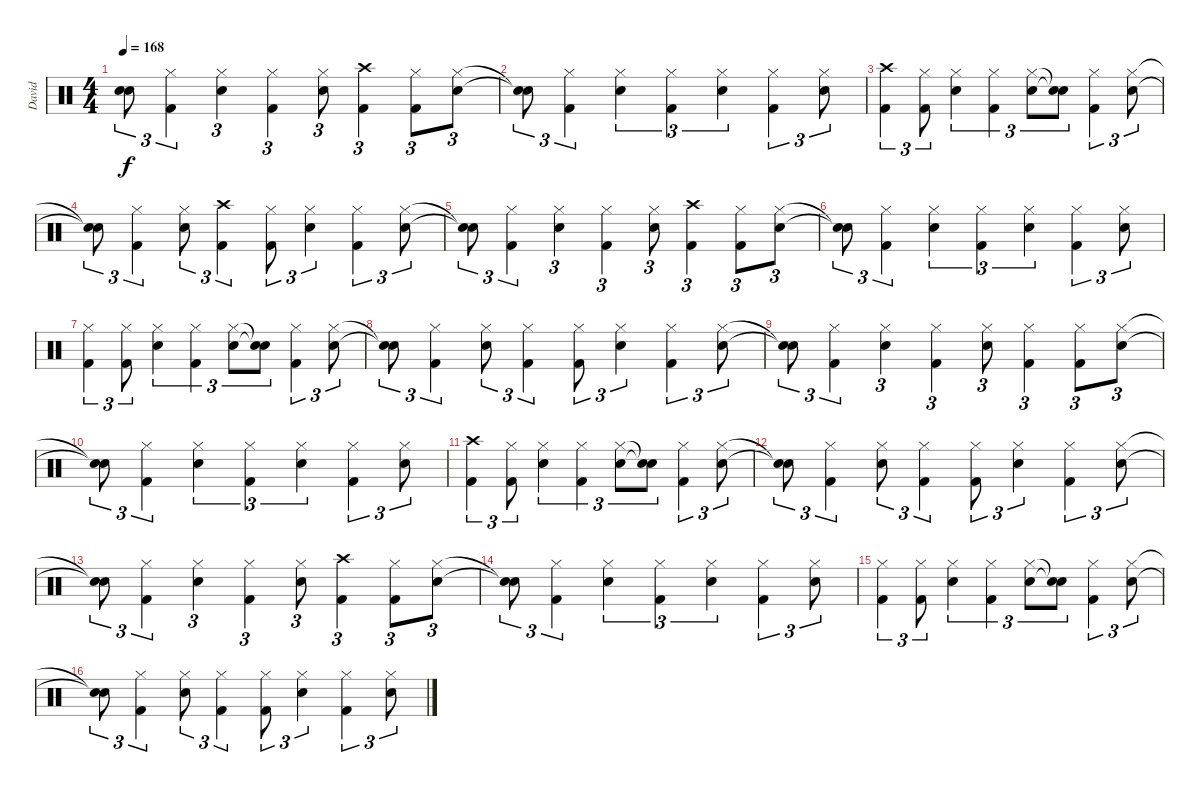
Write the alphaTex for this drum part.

\track ("David" "David") {instrument percussion}
\staff {score}
\articulation defaults
\ts (4 4)
\tempo 168
\clef neutral
\ks c
("Snare (hit)"{t} "Snare (hit)"{t}).8{tu (3 2) dy f} ("Hi-Hat (closed)" "Kick (hit) 2").4{tu (3 2)} ("Hi-Hat (closed)" "Snare (hit) 2").4{tu (3 2)} ("Hi-Hat (closed)" "Kick (hit) 2").4{tu (3 2)} ("Hi-Hat (closed)" "Snare (hit) 2").8{tu (3 2)} ("Crash high (hit)" "Kick (hit) 2").4{tu (3 2)} ("Hi-Hat (closed)" "Kick (hit) 2").8{tu (3 2)} ("Hi-Hat (closed)" "Snare (hit) 2").8{tu (3 2)} |
("Snare (hit)"{t} "Snare (hit)"{t}).8{tu (3 2)} ("Hi-Hat (closed)" "Kick (hit) 2").4{tu (3 2)} ("Hi-Hat (closed)" "Snare (hit) 2").4{tu (3 2)} ("Hi-Hat (closed)" "Kick (hit) 2").4{tu (3 2)} ("Hi-Hat (closed)" "Snare (hit) 2").4{tu (3 2)} ("Hi-Hat (closed)" "Kick (hit) 2").4{tu (3 2)} ("Hi-Hat (closed)" "Snare (hit) 2").8{tu (3 2)} |
("Crash high (hit)" "Kick (hit) 2").4{tu (3 2)} ("Hi-Hat (closed)" "Kick (hit) 2").8{tu (3 2)} ("Hi-Hat (closed)" "Snare (hit) 2").4{tu (3 2)} ("Hi-Hat (closed)" "Kick (hit) 2").4{tu (3 2)} ("Hi-Hat (closed)" "Snare (hit) 2").8{tu (3 2)} ("Snare (hit)"{t} "Snare (hit)"{t}).8{tu (3 2)} ("Hi-Hat (closed)" "Kick (hit) 2").4{tu (3 2)} ("Hi-Hat (closed)" "Snare (hit) 2").8{tu (3 2)} |
("Snare (hit)"{t} "Snare (hit)"{t}).8{tu (3 2)} ("Hi-Hat (closed)" "Kick (hit) 2").4{tu (3 2)} ("Hi-Hat (closed)" "Snare (hit) 2").8{tu (3 2)} ("Crash high (hit)" "Kick (hit) 2").4{tu (3 2)} ("Hi-Hat (closed)" "Kick (hit) 2").8{tu (3 2)} ("Hi-Hat (closed)" "Snare (hit) 2").4{tu (3 2)} ("Hi-Hat (closed)" "Kick (hit) 2").4{tu (3 2)} ("Hi-Hat (closed)" "Snare (hit) 2").8{tu (3 2)} |
("Snare (hit)"{t} "Snare (hit)"{t}).8{tu (3 2)} ("Hi-Hat (closed)" "Kick (hit) 2").4{tu (3 2)} ("Hi-Hat (closed)" "Snare (hit) 2").4{tu (3 2)} ("Hi-Hat (closed)" "Kick (hit) 2").4{tu (3 2)} ("Hi-Hat (closed)" "Snare (hit) 2").8{tu (3 2)} ("Crash high (hit)" "Kick (hit) 2").4{tu (3 2)} ("Hi-Hat (closed)" "Kick (hit) 2").8{tu (3 2)} ("Hi-Hat (closed)" "Snare (hit) 2").8{tu (3 2)} |
("Snare (hit)"{t} "Snare (hit)"{t}).8{tu (3 2)} ("Hi-Hat (closed)" "Kick (hit) 2").4{tu (3 2)} ("Hi-Hat (closed)" "Snare (hit) 2").4{tu (3 2)} ("Hi-Hat (closed)" "Kick (hit) 2").4{tu (3 2)} ("Hi-Hat (closed)" "Snare (hit) 2").4{tu (3 2)} ("Hi-Hat (closed)" "Kick (hit) 2").4{tu (3 2)} ("Hi-Hat (closed)" "Snare (hit) 2").8{tu (3 2)} |
("Hi-Hat (closed)" "Kick (hit) 2").4{tu (3 2)} ("Hi-Hat (closed)" "Kick (hit) 2").8{tu (3 2)} ("Hi-Hat (closed)" "Snare (hit) 2").4{tu (3 2)} ("Hi-Hat (closed)" "Kick (hit) 2").4{tu (3 2)} ("Hi-Hat (closed)" "Snare (hit) 2").8{tu (3 2)} ("Snare (hit)"{t} "Snare (hit)"{t}).8{tu (3 2)} ("Hi-Hat (closed)" "Kick (hit) 2").4{tu (3 2)} ("Hi-Hat (closed)" "Snare (hit) 2").8{tu (3 2)} |
("Snare (hit)"{t} "Snare (hit)"{t}).8{tu (3 2)} ("Hi-Hat (closed)" "Kick (hit) 2").4{tu (3 2)} ("Hi-Hat (closed)" "Snare (hit) 2").8{tu (3 2)} ("Hi-Hat (closed)" "Kick (hit) 2").4{tu (3 2)} ("Hi-Hat (closed)" "Kick (hit) 2").8{tu (3 2)} ("Hi-Hat (closed)" "Snare (hit) 2").4{tu (3 2)} ("Hi-Hat (closed)" "Kick (hit) 2").4{tu (3 2)} ("Hi-Hat (closed)" "Snare (hit) 2").8{tu (3 2)} |
("Snare (hit)"{t} "Snare (hit)"{t}).8{tu (3 2)} ("Hi-Hat (closed)" "Kick (hit) 2").4{tu (3 2)} ("Hi-Hat (closed)" "Snare (hit) 2").4{tu (3 2)} ("Hi-Hat (closed)" "Kick (hit) 2").4{tu (3 2)} ("Hi-Hat (closed)" "Snare (hit) 2").8{tu (3 2)} ("Hi-Hat (closed)" "Kick (hit) 2").4{tu (3 2)} ("Hi-Hat (closed)" "Kick (hit) 2").8{tu (3 2)} ("Hi-Hat (closed)" "Snare (hit) 2").8{tu (3 2)} |
("Snare (hit)"{t} "Snare (hit)"{t}).8{tu (3 2)} ("Hi-Hat (closed)" "Kick (hit) 2").4{tu (3 2)} ("Hi-Hat (closed)" "Snare (hit) 2").4{tu (3 2)} ("Hi-Hat (closed)" "Kick (hit) 2").4{tu (3 2)} ("Hi-Hat (closed)" "Snare (hit) 2").4{tu (3 2)} ("Hi-Hat (closed)" "Kick (hit) 2").4{tu (3 2)} ("Hi-Hat (closed)" "Snare (hit) 2").8{tu (3 2)} |
("Crash high (hit)" "Kick (hit) 2").4{tu (3 2)} ("Hi-Hat (closed)" "Kick (hit) 2").8{tu (3 2)} ("Hi-Hat (closed)" "Snare (hit) 2").4{tu (3 2)} ("Hi-Hat (closed)" "Kick (hit) 2").4{tu (3 2)} ("Hi-Hat (closed)" "Snare (hit) 2").8{tu (3 2)} ("Snare (hit)"{t} "Snare (hit)"{t}).8{tu (3 2)} ("Hi-Hat (closed)" "Kick (hit) 2").4{tu (3 2)} ("Hi-Hat (closed)" "Snare (hit) 2").8{tu (3 2)} |
("Snare (hit)"{t} "Snare (hit)"{t}).8{tu (3 2)} ("Hi-Hat (closed)" "Kick (hit) 2").4{tu (3 2)} ("Hi-Hat (closed)" "Snare (hit) 2").8{tu (3 2)} ("Hi-Hat (closed)" "Kick (hit) 2").4{tu (3 2)} ("Hi-Hat (closed)" "Kick (hit) 2").8{tu (3 2)} ("Hi-Hat (closed)" "Snare (hit) 2").4{tu (3 2)} ("Hi-Hat (closed)" "Kick (hit) 2").4{tu (3 2)} ("Hi-Hat (closed)" "Snare (hit) 2").8{tu (3 2)} |
("Snare (hit)"{t} "Snare (hit)"{t}).8{tu (3 2)} ("Hi-Hat (closed)" "Kick (hit) 2").4{tu (3 2)} ("Hi-Hat (closed)" "Snare (hit) 2").4{tu (3 2)} ("Hi-Hat (closed)" "Kick (hit) 2").4{tu (3 2)} ("Hi-Hat (closed)" "Snare (hit) 2").8{tu (3 2)} ("Crash high (hit)" "Kick (hit) 2").4{tu (3 2)} ("Hi-Hat (closed)" "Kick (hit) 2").8{tu (3 2)} ("Hi-Hat (closed)" "Snare (hit) 2").8{tu (3 2)} |
("Snare (hit)"{t} "Snare (hit)"{t}).8{tu (3 2)} ("Hi-Hat (closed)" "Kick (hit) 2").4{tu (3 2)} ("Hi-Hat (closed)" "Snare (hit) 2").4{tu (3 2)} ("Hi-Hat (closed)" "Kick (hit) 2").4{tu (3 2)} ("Hi-Hat (closed)" "Snare (hit) 2").4{tu (3 2)} ("Hi-Hat (closed)" "Kick (hit) 2").4{tu (3 2)} ("Hi-Hat (closed)" "Snare (hit) 2").8{tu (3 2)} |
("Hi-Hat (closed)" "Kick (hit) 2").4{tu (3 2)} ("Hi-Hat (closed)" "Kick (hit) 2").8{tu (3 2)} ("Hi-Hat (closed)" "Snare (hit) 2").4{tu (3 2)} ("Hi-Hat (closed)" "Kick (hit) 2").4{tu (3 2)} ("Hi-Hat (closed)" "Snare (hit) 2").8{tu (3 2)} ("Snare (hit)"{t} "Snare (hit)"{t}).8{tu (3 2)} ("Hi-Hat (closed)" "Kick (hit) 2").4{tu (3 2)} ("Hi-Hat (closed)" "Snare (hit) 2").8{tu (3 2)} |
("Snare (hit)"{t} "Snare (hit)"{t}).8{tu (3 2)} ("Hi-Hat (closed)" "Kick (hit) 2").4{tu (3 2)} ("Hi-Hat (closed)" "Snare (hit) 2").8{tu (3 2)} ("Hi-Hat (closed)" "Kick (hit) 2").4{tu (3 2)} ("Hi-Hat (closed)" "Kick (hit) 2").8{tu (3 2)} ("Hi-Hat (closed)" "Snare (hit) 2").4{tu (3 2)} ("Hi-Hat (closed)" "Kick (hit) 2").4{tu (3 2)} ("Hi-Hat (closed)" "Snare (hit) 2").8{tu (3 2)}
